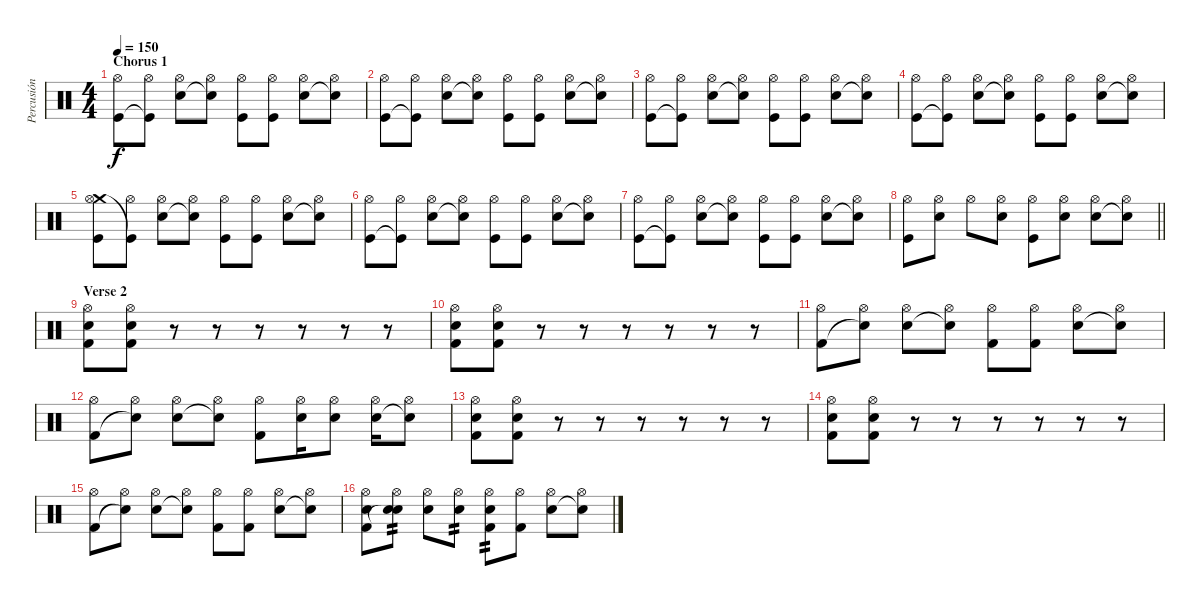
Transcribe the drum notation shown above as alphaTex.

\track ("Percusión" "Percusión") {instrument percussion}
\staff {score}
\articulation defaults
\ts (4 4)
\section ("" "Chorus 1")
\tempo 150
\clef neutral
\ks c
("Hi-Hat (open)" "Kick (hit)").8{dy f} ("Hi-Hat (open)" "Kick (hit)"{t}).8 ("Hi-Hat (open)" "Electric Snare (hit)").8 ("Hi-Hat (open)" "Snare (hit)"{t}).8 ("Hi-Hat (open)" "Kick (hit)").8 ("Hi-Hat (open)" "Kick (hit)").8 ("Hi-Hat (open)" "Electric Snare (hit)").8 ("Hi-Hat (open)" "Snare (hit)"{t}).8 |
("Hi-Hat (open)" "Kick (hit)").8 ("Hi-Hat (open)" "Kick (hit)"{t}).8 ("Hi-Hat (open)" "Electric Snare (hit)").8 ("Hi-Hat (open)" "Snare (hit)"{t}).8 ("Hi-Hat (open)" "Kick (hit)").8 ("Hi-Hat (open)" "Kick (hit)").8 ("Hi-Hat (open)" "Electric Snare (hit)").8 ("Hi-Hat (open)" "Snare (hit)"{t}).8 |
("Hi-Hat (open)" "Kick (hit)").8 ("Hi-Hat (open)" "Kick (hit)"{t}).8 ("Hi-Hat (open)" "Electric Snare (hit)").8 ("Hi-Hat (open)" "Snare (hit)"{t}).8 ("Hi-Hat (open)" "Kick (hit)").8 ("Hi-Hat (open)" "Kick (hit)").8 ("Hi-Hat (open)" "Electric Snare (hit)").8 ("Hi-Hat (open)" "Snare (hit)"{t}).8 |
("Hi-Hat (open)" "Kick (hit)").8 ("Hi-Hat (open)" "Kick (hit)"{t}).8 ("Hi-Hat (open)" "Electric Snare (hit)").8 ("Hi-Hat (open)" "Snare (hit)"{t}).8 ("Hi-Hat (open)" "Kick (hit)").8 ("Hi-Hat (open)" "Kick (hit)").8 ("Hi-Hat (open)" "Electric Snare (hit)").8 ("Hi-Hat (open)" "Snare (hit)"{t}).8 |
("Crash medium (hit)" "Hi-Hat (open)" "Kick (hit)").8 ("Hi-Hat (open)" "Kick (hit)"{t}).8 ("Hi-Hat (open)" "Electric Snare (hit)").8 ("Hi-Hat (open)" "Snare (hit)"{t}).8 ("Hi-Hat (open)" "Kick (hit)").8 ("Hi-Hat (open)" "Kick (hit)").8 ("Hi-Hat (open)" "Electric Snare (hit)").8 ("Hi-Hat (open)" "Snare (hit)"{t}).8 |
("Hi-Hat (open)" "Kick (hit)").8 ("Hi-Hat (open)" "Kick (hit)"{t}).8 ("Hi-Hat (open)" "Electric Snare (hit)").8 ("Hi-Hat (open)" "Snare (hit)"{t}).8 ("Hi-Hat (open)" "Kick (hit)").8 ("Hi-Hat (open)" "Kick (hit)").8 ("Hi-Hat (open)" "Electric Snare (hit)").8 ("Hi-Hat (open)" "Snare (hit)"{t}).8 |
("Hi-Hat (open)" "Kick (hit)").8 ("Hi-Hat (open)" "Kick (hit)"{t}).8 ("Hi-Hat (open)" "Electric Snare (hit)").8 ("Hi-Hat (open)" "Snare (hit)"{t}).8 ("Hi-Hat (open)" "Kick (hit)").8 ("Hi-Hat (open)" "Kick (hit)").8 ("Hi-Hat (open)" "Electric Snare (hit)").8 ("Hi-Hat (open)" "Snare (hit)"{t}).8 |
\barLineRight lightlight
("Hi-Hat (open)" "Kick (hit)").8 ("Hi-Hat (open)" "Electric Snare (hit)").8 "Hi-Hat (open)".8 ("Hi-Hat (open)" "Electric Snare (hit)").8 ("Hi-Hat (open)" "Kick (hit)").8 ("Hi-Hat (open)" "Electric Snare (hit)").8 ("Hi-Hat (open)" "Electric Snare (hit)").8 ("Hi-Hat (open)" "Snare (hit)"{t}).8 |
\section ("" "Verse 2")
("Hi-Hat (open)" "Electric Snare (hit)" "Kick (hit) 2").8 ("Hi-Hat (open)" "Electric Snare (hit)" "Kick (hit) 2").8 r.8 r.8 r.8 r.8 r.8 r.8 |
("Hi-Hat (open)" "Electric Snare (hit)" "Kick (hit) 2").8 ("Hi-Hat (open)" "Electric Snare (hit)" "Kick (hit) 2").8 r.8 r.8 r.8 r.8 r.8 r.8 |
("Hi-Hat (open)" "Kick (hit) 2").8 ("Hi-Hat (open)" "Snare (hit)"{t}).8 ("Hi-Hat (open)" "Electric Snare (hit)").8 ("Hi-Hat (open)" "Snare (hit)"{t}).8 ("Hi-Hat (open)" "Kick (hit) 2").8 ("Hi-Hat (open)" "Kick (hit) 2").8 ("Hi-Hat (open)" "Electric Snare (hit)").8 ("Hi-Hat (open)" "Snare (hit)"{t}).8 |
("Hi-Hat (open)" "Kick (hit) 2").8 ("Hi-Hat (open)" "Snare (hit)"{t}).8 ("Hi-Hat (open)" "Electric Snare (hit)").8 ("Hi-Hat (open)" "Snare (hit)"{t}).8 ("Hi-Hat (open)" "Kick (hit) 2").8 ("Hi-Hat (open)" "Electric Snare (hit)").16 ("Hi-Hat (open)" "Electric Snare (hit)").8 ("Hi-Hat (open)" "Electric Snare (hit)").16 ("Hi-Hat (open)" "Snare (hit)"{t}).8 |
("Hi-Hat (open)" "Electric Snare (hit)" "Kick (hit) 2").8 ("Hi-Hat (open)" "Electric Snare (hit)" "Kick (hit) 2").8 r.8 r.8 r.8 r.8 r.8 r.8 |
("Hi-Hat (open)" "Electric Snare (hit)" "Kick (hit) 2").8 ("Hi-Hat (open)" "Electric Snare (hit)" "Kick (hit) 2").8 r.8 r.8 r.8 r.8 r.8 r.8 |
("Hi-Hat (open)" "Kick (hit) 2").8 ("Hi-Hat (open)" "Snare (hit)"{t}).8 ("Hi-Hat (open)" "Electric Snare (hit)").8 ("Hi-Hat (open)" "Snare (hit)"{t}).8 ("Hi-Hat (open)" "Kick (hit) 2").8 ("Hi-Hat (open)" "Kick (hit) 2").8 ("Hi-Hat (open)" "Electric Snare (hit)").8 ("Hi-Hat (open)" "Snare (hit)"{t}).8 |
("Hi-Hat (open)" "Electric Snare (hit)" "Kick (hit) 2").8 ("Hi-Hat (open)" "Electric Snare (hit)" "Snare (hit)"{t}).8{tp 2} ("Hi-Hat (open)" "Electric Snare (hit)").8 ("Hi-Hat (open)" "Electric Snare (hit)").8{tp 2} ("Hi-Hat (open)" "Electric Snare (hit)" "Kick (hit) 2").8{tp 2} ("Hi-Hat (open)" "Kick (hit) 2").8 ("Hi-Hat (open)" "Electric Snare (hit)").8 ("Hi-Hat (open)" "Snare (hit)"{t}).8
